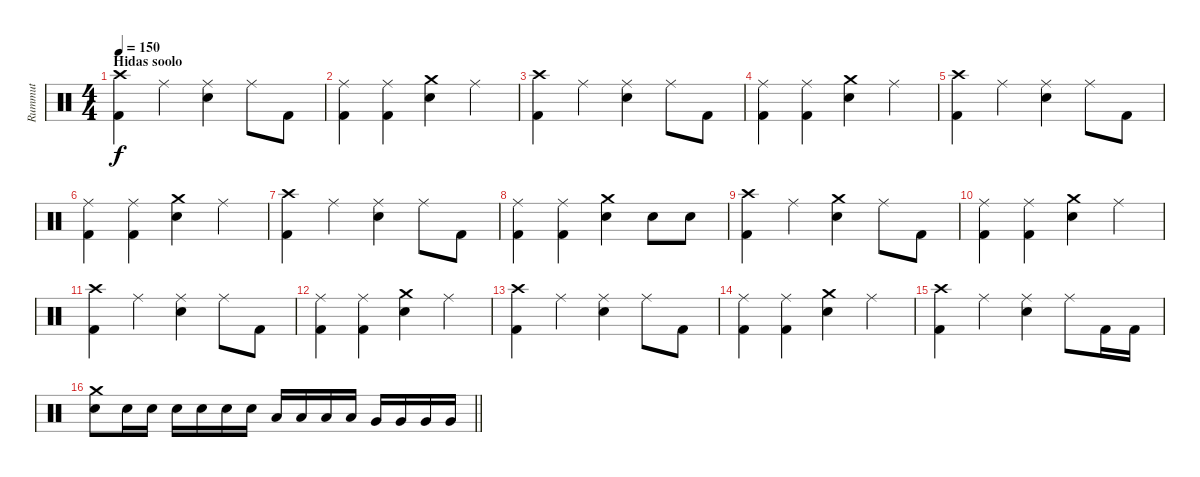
\track ("Rummut" "Rummut") {instrument percussion}
\staff {score}
\articulation defaults
\ts (4 4)
\section ("" "Hidas soolo")
\tempo 150
\clef neutral
\ks c
("Crash high (hit)" "Kick (hit) 2").4{dy f} "Ride (middle)".4 ("Ride (middle)" "Snare (hit) 2").4 "Ride (middle)".8 "Kick (hit) 2".8 |
("Ride (middle)" "Kick (hit) 2").4 ("Ride (middle)" "Kick (hit) 2").4 ("Crash medium (hit)" "Snare (hit) 2").4 "Ride (middle)".4 |
("Crash high (hit)" "Kick (hit) 2").4 "Ride (middle)".4 ("Ride (middle)" "Snare (hit) 2").4 "Ride (middle)".8 "Kick (hit) 2".8 |
("Ride (middle)" "Kick (hit) 2").4 ("Ride (middle)" "Kick (hit) 2").4 ("Crash medium (hit)" "Snare (hit) 2").4 "Ride (middle)".4 |
("Crash high (hit)" "Kick (hit) 2").4 "Ride (middle)".4 ("Ride (middle)" "Snare (hit) 2").4 "Ride (middle)".8 "Kick (hit) 2".8 |
("Ride (middle)" "Kick (hit) 2").4 ("Ride (middle)" "Kick (hit) 2").4 ("Crash medium (hit)" "Snare (hit) 2").4 "Ride (middle)".4 |
("Crash high (hit)" "Kick (hit) 2").4 "Ride (middle)".4 ("Ride (middle)" "Snare (hit) 2").4 "Ride (middle)".8 "Kick (hit) 2".8 |
("Ride (middle)" "Kick (hit) 2").4 ("Ride (middle)" "Kick (hit) 2").4 ("Crash medium (hit)" "Snare (hit) 2").4 "Snare (hit) 2".8 "Snare (hit) 2".8 |
("Crash high (hit)" "Kick (hit) 2").4 "Ride (middle)".4 ("Crash medium (hit)" "Snare (hit) 2").4 "Ride (middle)".8 "Kick (hit) 2".8 |
("Ride (middle)" "Kick (hit) 2").4 ("Ride (middle)" "Kick (hit) 2").4 ("Crash medium (hit)" "Snare (hit) 2").4 "Ride (middle)".4 |
("Crash high (hit)" "Kick (hit) 2").4 "Ride (middle)".4 ("Ride (middle)" "Snare (hit) 2").4 "Ride (middle)".8 "Kick (hit) 2".8 |
("Ride (middle)" "Kick (hit) 2").4 ("Ride (middle)" "Kick (hit) 2").4 ("Crash medium (hit)" "Snare (hit) 2").4 "Ride (middle)".4 |
("Crash high (hit)" "Kick (hit) 2").4 "Ride (middle)".4 ("Ride (middle)" "Snare (hit) 2").4 "Ride (middle)".8 "Kick (hit) 2".8 |
("Ride (middle)" "Kick (hit) 2").4 ("Ride (middle)" "Kick (hit) 2").4 ("Crash medium (hit)" "Snare (hit) 2").4 "Ride (middle)".4 |
("Crash high (hit)" "Kick (hit) 2").4 "Ride (middle)".4 ("Ride (middle)" "Snare (hit) 2").4 "Ride (middle)".8 "Kick (hit) 2".16 "Kick (hit) 2".16 |
\barLineRight lightlight
("Crash medium (hit)" "Snare (hit) 2").8 "Snare (hit) 2".16 "Snare (hit) 2".16 "Snare (hit) 2".16 "Snare (hit) 2".16 "Snare (hit) 2".16 "Snare (hit) 2".16 "Low Tom (hit)".16 "Low Tom (hit)".16 "Low Tom (hit)".16 "Low Tom (hit)".16 "Very Low Tom (hit)".16 "Very Low Tom (hit)".16 "Very Low Tom (hit)".16 "Very Low Tom (hit)".16
